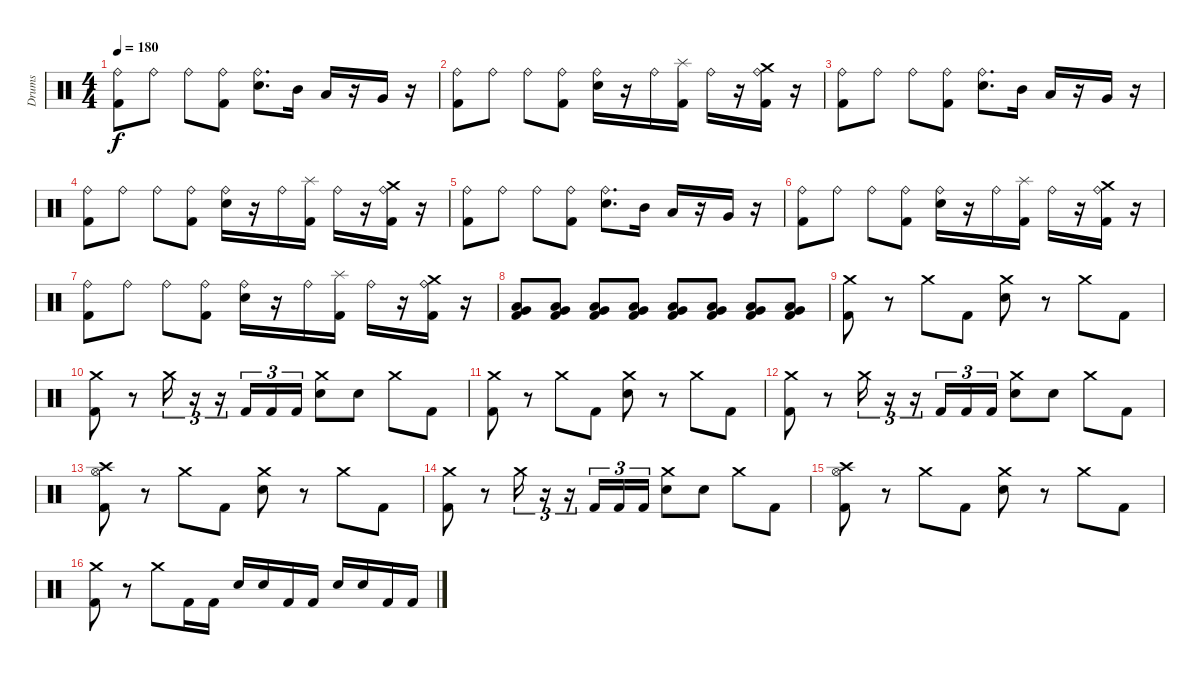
\track ("Drums" "Drums") {instrument percussion}
\staff {score}
\articulation defaults
\ts (4 4)
\tempo 180
\clef neutral
\ks c
("Ride (bell)" "Kick (hit) 2").8{dy f} "Ride (bell)".8 "Ride (bell)".8 ("Ride (bell)" "Kick (hit) 2").8 ("Ride (bell)" "Electric Snare (hit)").8{d} "Mid Tom (hit)".16 "Low Tom (hit)".16 r.16 "Very Low Tom (hit)".16 r.16 |
("Ride (bell)" "Kick (hit) 2").8 "Ride (bell)".8 "Ride (bell)".8 ("Ride (bell)" "Kick (hit) 2").8 ("Ride (bell)" "Electric Snare (hit)").16 r.16 "Ride (bell)".16 ("Splash (hit)" "Kick (hit) 2").16 "Ride (bell)".16 r.16 ("Crash medium (hit)" "Ride (bell)" "Kick (hit) 2").16 r.16 |
("Ride (bell)" "Kick (hit) 2").8 "Ride (bell)".8 "Ride (bell)".8 ("Ride (bell)" "Kick (hit) 2").8 ("Ride (bell)" "Electric Snare (hit)").8{d} "Mid Tom (hit)".16 "Low Tom (hit)".16 r.16 "Very Low Tom (hit)".16 r.16 |
("Ride (bell)" "Kick (hit) 2").8 "Ride (bell)".8 "Ride (bell)".8 ("Ride (bell)" "Kick (hit) 2").8 ("Ride (bell)" "Electric Snare (hit)").16 r.16 "Ride (bell)".16 ("Splash (hit)" "Kick (hit) 2").16 "Ride (bell)".16 r.16 ("Crash medium (hit)" "Ride (bell)" "Kick (hit) 2").16 r.16 |
("Ride (bell)" "Kick (hit) 2").8 "Ride (bell)".8 "Ride (bell)".8 ("Ride (bell)" "Kick (hit) 2").8 ("Ride (bell)" "Electric Snare (hit)").8{d} "Mid Tom (hit)".16 "Low Tom (hit)".16 r.16 "Very Low Tom (hit)".16 r.16 |
("Ride (bell)" "Kick (hit) 2").8 "Ride (bell)".8 "Ride (bell)".8 ("Ride (bell)" "Kick (hit) 2").8 ("Ride (bell)" "Electric Snare (hit)").16 r.16 "Ride (bell)".16 ("Splash (hit)" "Kick (hit) 2").16 "Ride (bell)".16 r.16 ("Crash medium (hit)" "Ride (bell)" "Kick (hit) 2").16 r.16 |
("Ride (bell)" "Kick (hit) 2").8 "Ride (bell)".8 "Ride (bell)".8 ("Ride (bell)" "Kick (hit) 2").8 ("Ride (bell)" "Electric Snare (hit)").16 r.16 "Ride (bell)".16 ("Splash (hit)" "Kick (hit) 2").16 "Ride (bell)".16 r.16 ("Crash medium (hit)" "Ride (bell)" "Kick (hit) 2").16 r.16 |
("Low Floor Tom (hit)" "Very Low Tom (hit)" "Kick (hit) 2").8 ("Low Floor Tom (hit)" "Very Low Tom (hit)" "Kick (hit) 2").8 ("Low Floor Tom (hit)" "Very Low Tom (hit)" "Kick (hit) 2").8 ("Low Floor Tom (hit)" "Very Low Tom (hit)" "Kick (hit) 2").8 ("Low Floor Tom (hit)" "Very Low Tom (hit)" "Kick (hit) 2").8 ("Low Floor Tom (hit)" "Very Low Tom (hit)" "Kick (hit) 2").8 ("Low Floor Tom (hit)" "Very Low Tom (hit)" "Kick (hit) 2").8 ("Low Floor Tom (hit)" "Very Low Tom (hit)" "Kick (hit) 2").8 |
("Crash medium (hit)" "Kick (hit) 2").8 r.8 "Crash medium (hit)".8 "Kick (hit) 2".8 ("Crash medium (hit)" "Electric Snare (hit)").8 r.8 "Crash medium (hit)".8 "Kick (hit) 2".8 |
("Crash medium (hit)" "Kick (hit) 2").8 r.8 "Crash medium (hit)".16{tu (3 2)} r.16{tu (3 2)} r.16{tu (3 2)} "Kick (hit) 2".16{tu (3 2)} "Kick (hit) 2".16{tu (3 2)} "Kick (hit) 2".16{tu (3 2)} ("Crash medium (hit)" "Electric Snare (hit)").8 "Electric Snare (hit)".8 "Crash medium (hit)".8 "Kick (hit) 2".8 |
("Crash medium (hit)" "Kick (hit) 2").8 r.8 "Crash medium (hit)".8 "Kick (hit) 2".8 ("Crash medium (hit)" "Electric Snare (hit)").8 r.8 "Crash medium (hit)".8 "Kick (hit) 2".8 |
("Crash medium (hit)" "Kick (hit) 2").8 r.8 "Crash medium (hit)".16{tu (3 2)} r.16{tu (3 2)} r.16{tu (3 2)} "Kick (hit) 2".16{tu (3 2)} "Kick (hit) 2".16{tu (3 2)} "Kick (hit) 2".16{tu (3 2)} ("Crash medium (hit)" "Electric Snare (hit)").8 "Electric Snare (hit)".8 "Crash medium (hit)".8 "Kick (hit) 2".8 |
("Crash high (hit)" "Hi-Hat (open)" "Kick (hit) 2").8 r.8 "Crash medium (hit)".8 "Kick (hit) 2".8 ("Crash medium (hit)" "Electric Snare (hit)").8 r.8 "Crash medium (hit)".8 "Kick (hit) 2".8 |
("Crash medium (hit)" "Kick (hit) 2").8 r.8 "Crash medium (hit)".16{tu (3 2)} r.16{tu (3 2)} r.16{tu (3 2)} "Kick (hit) 2".16{tu (3 2)} "Kick (hit) 2".16{tu (3 2)} "Kick (hit) 2".16{tu (3 2)} ("Crash medium (hit)" "Electric Snare (hit)").8 "Electric Snare (hit)".8 "Crash medium (hit)".8 "Kick (hit) 2".8 |
("Crash high (hit)" "Hi-Hat (open)" "Kick (hit) 2").8 r.8 "Crash medium (hit)".8 "Kick (hit) 2".8 ("Crash medium (hit)" "Electric Snare (hit)").8 r.8 "Crash medium (hit)".8 "Kick (hit) 2".8 |
("Crash medium (hit)" "Kick (hit) 2").8 r.8 "Crash medium (hit)".8 "Kick (hit) 2".16 "Kick (hit) 2".16 "Electric Snare (hit)".16 "Electric Snare (hit)".16 "Kick (hit) 2".16 "Kick (hit) 2".16 "Electric Snare (hit)".16 "Electric Snare (hit)".16 "Kick (hit) 2".16 "Kick (hit) 2".16
